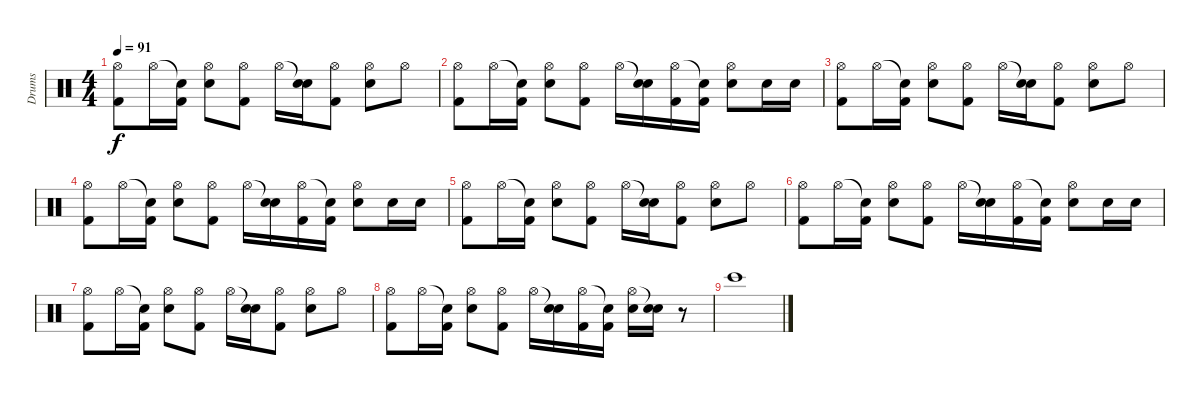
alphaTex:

\track ("Drums" "Drums") {instrument percussion}
\staff {score}
\articulation defaults
\ts (4 4)
\tempo 91
\clef neutral
\ks c
("Hi-Hat (open)" "Kick (hit) 2").8{dy f} "Hi-Hat (open)".16 ("Snare (hit)"{t} "Kick (hit) 2").16 ("Hi-Hat (open)" "Electric Snare (hit)").8 ("Hi-Hat (open)" "Kick (hit) 2").8 "Hi-Hat (open)".16 ("Snare (hit)"{t} "Electric Snare (hit)").16 ("Hi-Hat (open)" "Kick (hit) 2").8 ("Hi-Hat (open)" "Electric Snare (hit)").8 "Hi-Hat (open)".8 |
("Hi-Hat (open)" "Kick (hit) 2").8 "Hi-Hat (open)".16 ("Snare (hit)"{t} "Kick (hit) 2").16 ("Hi-Hat (open)" "Electric Snare (hit)").8 ("Hi-Hat (open)" "Kick (hit) 2").8 "Hi-Hat (open)".16 ("Snare (hit)"{t} "Electric Snare (hit)").16 ("Hi-Hat (open)" "Kick (hit) 2").16 ("Snare (hit)"{t} "Kick (hit) 2").16 ("Hi-Hat (open)" "Electric Snare (hit)").8 "Electric Snare (hit)".16 "Electric Snare (hit)".16 |
("Hi-Hat (open)" "Kick (hit) 2").8 "Hi-Hat (open)".16 ("Snare (hit)"{t} "Kick (hit) 2").16 ("Hi-Hat (open)" "Electric Snare (hit)").8 ("Hi-Hat (open)" "Kick (hit) 2").8 "Hi-Hat (open)".16 ("Snare (hit)"{t} "Electric Snare (hit)").16 ("Hi-Hat (open)" "Kick (hit) 2").8 ("Hi-Hat (open)" "Electric Snare (hit)").8 "Hi-Hat (open)".8 |
("Hi-Hat (open)" "Kick (hit) 2").8 "Hi-Hat (open)".16 ("Snare (hit)"{t} "Kick (hit) 2").16 ("Hi-Hat (open)" "Electric Snare (hit)").8 ("Hi-Hat (open)" "Kick (hit) 2").8 "Hi-Hat (open)".16 ("Snare (hit)"{t} "Electric Snare (hit)").16 ("Hi-Hat (open)" "Kick (hit) 2").16 ("Snare (hit)"{t} "Kick (hit) 2").16 ("Hi-Hat (open)" "Electric Snare (hit)").8 "Electric Snare (hit)".16 "Electric Snare (hit)".16 |
("Hi-Hat (open)" "Kick (hit) 2").8 "Hi-Hat (open)".16 ("Snare (hit)"{t} "Kick (hit) 2").16 ("Hi-Hat (open)" "Electric Snare (hit)").8 ("Hi-Hat (open)" "Kick (hit) 2").8 "Hi-Hat (open)".16 ("Snare (hit)"{t} "Electric Snare (hit)").16 ("Hi-Hat (open)" "Kick (hit) 2").8 ("Hi-Hat (open)" "Electric Snare (hit)").8 "Hi-Hat (open)".8 |
("Hi-Hat (open)" "Kick (hit) 2").8 "Hi-Hat (open)".16 ("Snare (hit)"{t} "Kick (hit) 2").16 ("Hi-Hat (open)" "Electric Snare (hit)").8 ("Hi-Hat (open)" "Kick (hit) 2").8 "Hi-Hat (open)".16 ("Snare (hit)"{t} "Electric Snare (hit)").16 ("Hi-Hat (open)" "Kick (hit) 2").16 ("Snare (hit)"{t} "Kick (hit) 2").16 ("Hi-Hat (open)" "Electric Snare (hit)").8 "Electric Snare (hit)".16 "Electric Snare (hit)".16 |
("Hi-Hat (open)" "Kick (hit) 2").8 "Hi-Hat (open)".16 ("Snare (hit)"{t} "Kick (hit) 2").16 ("Hi-Hat (open)" "Electric Snare (hit)").8 ("Hi-Hat (open)" "Kick (hit) 2").8 "Hi-Hat (open)".16 ("Snare (hit)"{t} "Electric Snare (hit)").16 ("Hi-Hat (open)" "Kick (hit) 2").8 ("Hi-Hat (open)" "Electric Snare (hit)").8 "Hi-Hat (open)".8 |
("Hi-Hat (open)" "Kick (hit) 2").8 "Hi-Hat (open)".16 ("Snare (hit)"{t} "Kick (hit) 2").16 ("Hi-Hat (open)" "Electric Snare (hit)").8 ("Hi-Hat (open)" "Kick (hit) 2").8 "Hi-Hat (open)".16 ("Snare (hit)"{t} "Electric Snare (hit)").16 ("Hi-Hat (open)" "Kick (hit) 2").16 ("Snare (hit)"{t} "Kick (hit) 2").16 ("Hi-Hat (open)" "Electric Snare (hit)").16 ("Snare (hit)"{t} "Electric Snare (hit)").16 r.8 |
"Bongo High (hit)".1
